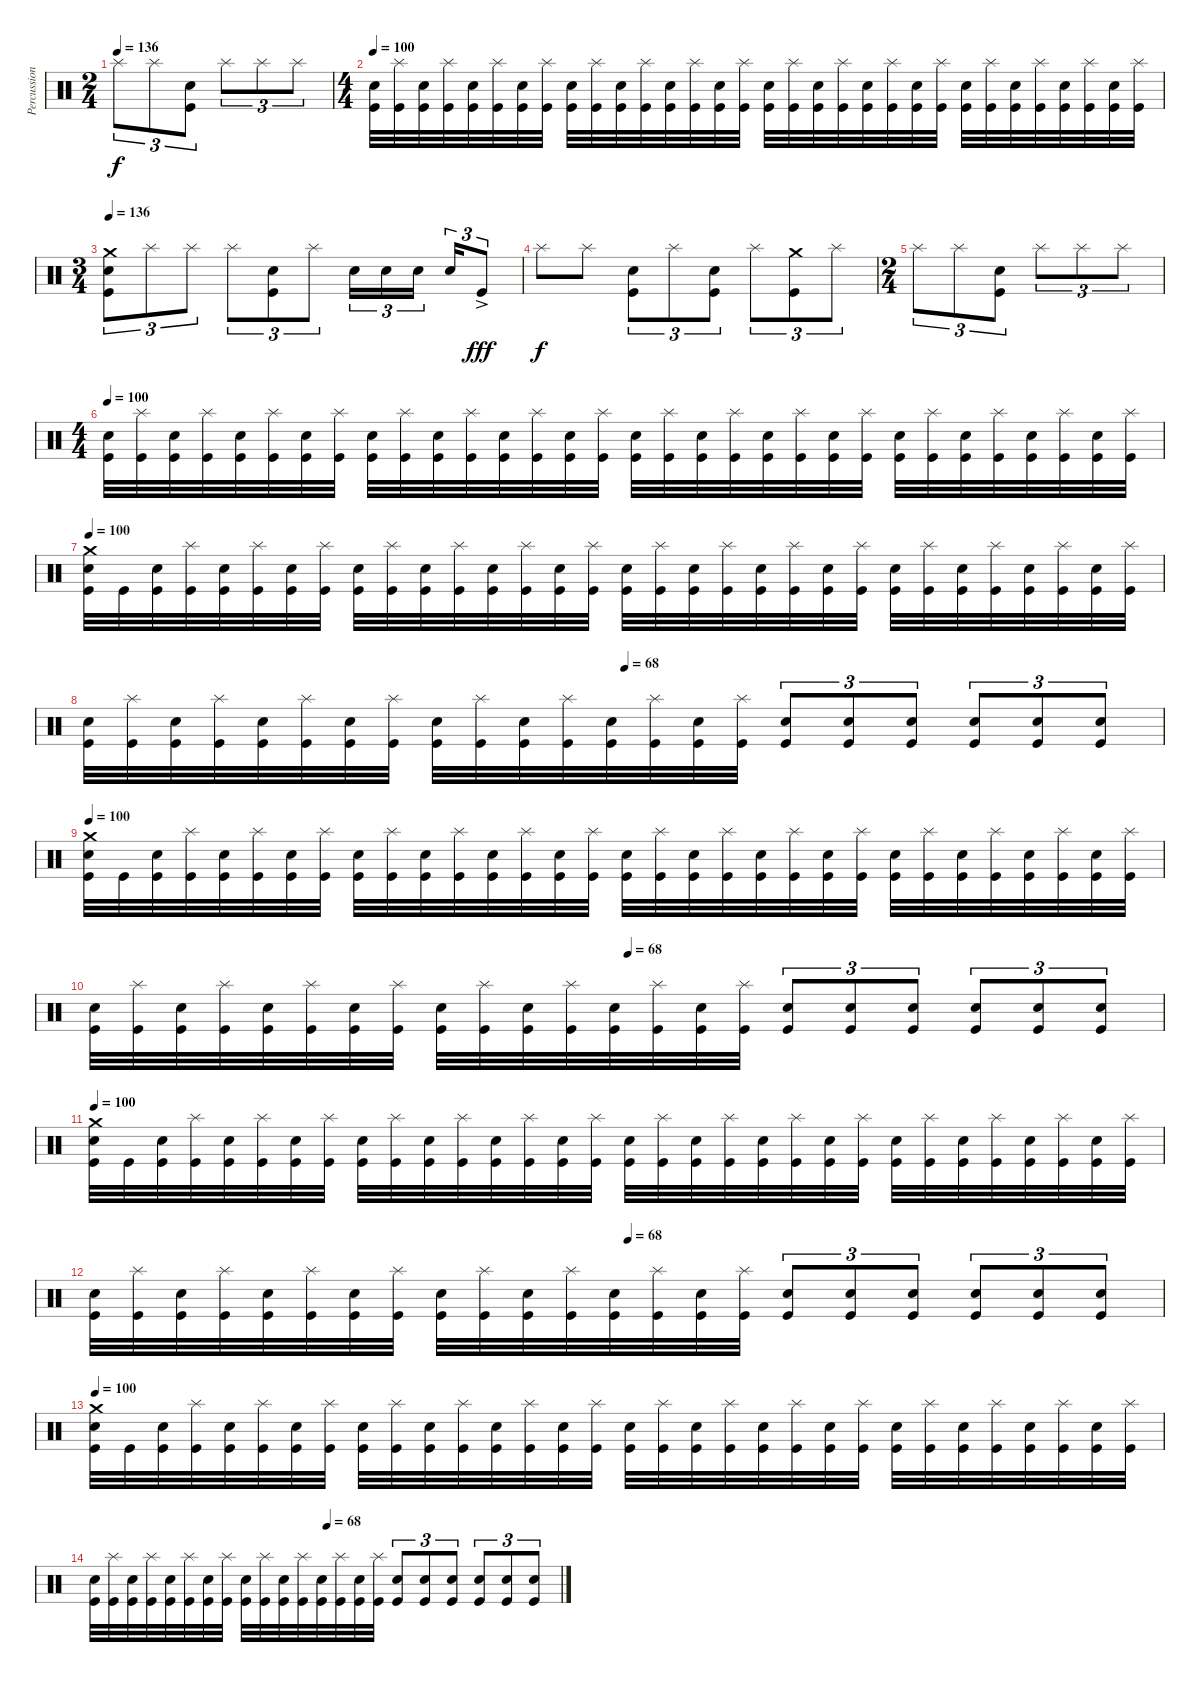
\track ("Percussion" "Percussion") {instrument percussion}
\staff {score}
\articulation defaults
\ts (2 4)
\tempo 136
\clef neutral
\ks c "Splash (hit)".8{tu (3 2) dy f} "Splash (hit)".8{tu (3 2)}
("Electric Snare (hit)" "Kick (hit)").8{tu (3 2)} "Splash (hit)".8{tu (3 2)} "Splash (hit)".8{tu (3 2)} "Splash (hit)".8{tu (3 2)} |
\ts (4 4)
\tempo 100
("Electric Snare (hit)" "Kick (hit)").32 ("Splash (hit)" "Kick (hit)").32 ("Electric Snare (hit)" "Kick (hit)").32 ("Splash (hit)" "Kick (hit)").32 ("Electric Snare (hit)" "Kick (hit)").32 ("Splash (hit)" "Kick (hit)").32 ("Electric Snare (hit)" "Kick (hit)").32 ("Splash (hit)" "Kick (hit)").32 ("Electric Snare (hit)" "Kick (hit)").32 ("Splash (hit)" "Kick (hit)").32 ("Electric Snare (hit)" "Kick (hit)").32 ("Splash (hit)" "Kick (hit)").32 ("Electric Snare (hit)" "Kick (hit)").32 ("Splash (hit)" "Kick (hit)").32 ("Electric Snare (hit)" "Kick (hit)").32 ("Splash (hit)" "Kick (hit)").32 ("Electric Snare (hit)" "Kick (hit)").32 ("Splash (hit)" "Kick (hit)").32 ("Electric Snare (hit)" "Kick (hit)").32 ("Splash (hit)" "Kick (hit)").32 ("Electric Snare (hit)" "Kick (hit)").32 ("Splash (hit)" "Kick (hit)").32 ("Electric Snare (hit)" "Kick (hit)").32 ("Splash (hit)" "Kick (hit)").32 ("Electric Snare (hit)" "Kick (hit)").32 ("Splash (hit)" "Kick (hit)").32 ("Electric Snare (hit)" "Kick (hit)").32 ("Splash (hit)" "Kick (hit)").32 ("Electric Snare (hit)" "Kick (hit)").32 ("Splash (hit)" "Kick (hit)").32 ("Electric Snare (hit)" "Kick (hit)").32 ("Splash (hit)" "Kick (hit)").32 |
\ts (3 4)
\tempo 136
("Crash medium (hit)" "Electric Snare (hit)" "Kick (hit)").8{tu (3 2)} "Splash (hit)".8{tu (3 2)} "Splash (hit)".8{tu (3 2)} "Splash (hit)".8{tu (3 2)} ("Electric Snare (hit)" "Kick (hit)").8{tu (3 2)} "Splash (hit)".8{tu (3 2)} "Electric Snare (hit)".16{tu (3 2)} "Electric Snare (hit)".16{tu (3 2)} "Electric Snare (hit)".16{tu (3 2)} "Electric Snare (hit)".16{tu (3 2)} "Kick (hit)"{ac}.8{tu (3 2) dy fff} |
"Splash (hit)".8{dy f} "Splash (hit)".8 ("Electric Snare (hit)" "Kick (hit)").8{tu (3 2)} "Splash (hit)".8{tu (3 2)} ("Electric Snare (hit)" "Kick (hit)").8{tu (3 2)} "Splash (hit)".8{tu (3 2)} ("Crash medium (hit)" "Kick (hit)").8{tu (3 2)} "Splash (hit)".8{tu (3 2)} |
\ts (2 4)
"Splash (hit)".8{tu (3 2)} "Splash (hit)".8{tu (3 2)} ("Electric Snare (hit)" "Kick (hit)").8{tu (3 2)} "Splash (hit)".8{tu (3 2)} "Splash (hit)".8{tu (3 2)} "Splash (hit)".8{tu (3 2)} |
\ts (4 4)
\tempo 100
("Electric Snare (hit)" "Kick (hit)").32 ("Splash (hit)" "Kick (hit)").32 ("Electric Snare (hit)" "Kick (hit)").32 ("Splash (hit)" "Kick (hit)").32 ("Electric Snare (hit)" "Kick (hit)").32 ("Splash (hit)" "Kick (hit)").32 ("Electric Snare (hit)" "Kick (hit)").32 ("Splash (hit)" "Kick (hit)").32 ("Electric Snare (hit)" "Kick (hit)").32 ("Splash (hit)" "Kick (hit)").32 ("Electric Snare (hit)" "Kick (hit)").32 ("Splash (hit)" "Kick (hit)").32 ("Electric Snare (hit)" "Kick (hit)").32 ("Splash (hit)" "Kick (hit)").32 ("Electric Snare (hit)" "Kick (hit)").32 ("Splash (hit)" "Kick (hit)").32 ("Electric Snare (hit)" "Kick (hit)").32 ("Splash (hit)" "Kick (hit)").32 ("Electric Snare (hit)" "Kick (hit)").32 ("Splash (hit)" "Kick (hit)").32 ("Electric Snare (hit)" "Kick (hit)").32 ("Splash (hit)" "Kick (hit)").32 ("Electric Snare (hit)" "Kick (hit)").32 ("Splash (hit)" "Kick (hit)").32 ("Electric Snare (hit)" "Kick (hit)").32 ("Splash (hit)" "Kick (hit)").32 ("Electric Snare (hit)" "Kick (hit)").32 ("Splash (hit)" "Kick (hit)").32 ("Electric Snare (hit)" "Kick (hit)").32 ("Splash (hit)" "Kick (hit)").32 ("Electric Snare (hit)" "Kick (hit)").32 ("Splash (hit)" "Kick (hit)").32 |
\tempo 100
("Crash medium (hit)" "Electric Snare (hit)" "Kick (hit)").32 "Kick (hit)".32 ("Electric Snare (hit)" "Kick (hit)").32 ("Splash (hit)" "Kick (hit)").32 ("Electric Snare (hit)" "Kick (hit)").32 ("Splash (hit)" "Kick (hit)").32 ("Electric Snare (hit)" "Kick (hit)").32 ("Splash (hit)" "Kick (hit)").32 ("Electric Snare (hit)" "Kick (hit)").32 ("Splash (hit)" "Kick (hit)").32 ("Electric Snare (hit)" "Kick (hit)").32 ("Splash (hit)" "Kick (hit)").32 ("Electric Snare (hit)" "Kick (hit)").32 ("Splash (hit)" "Kick (hit)").32 ("Electric Snare (hit)" "Kick (hit)").32 ("Splash (hit)" "Kick (hit)").32 ("Electric Snare (hit)" "Kick (hit)").32 ("Splash (hit)" "Kick (hit)").32 ("Electric Snare (hit)" "Kick (hit)").32 ("Splash (hit)" "Kick (hit)").32 ("Electric Snare (hit)" "Kick (hit)").32 ("Splash (hit)" "Kick (hit)").32 ("Electric Snare (hit)" "Kick (hit)").32 ("Splash (hit)" "Kick (hit)").32 ("Electric Snare (hit)" "Kick (hit)").32 ("Splash (hit)" "Kick (hit)").32 ("Electric Snare (hit)" "Kick (hit)").32 ("Splash (hit)" "Kick (hit)").32 ("Electric Snare (hit)" "Kick (hit)").32 ("Splash (hit)" "Kick (hit)").32 ("Electric Snare (hit)" "Kick (hit)").32 ("Splash (hit)" "Kick (hit)").32 |
\tempo (68 0.5)
("Electric Snare (hit)" "Kick (hit)").32 ("Splash (hit)" "Kick (hit)").32 ("Electric Snare (hit)" "Kick (hit)").32 ("Splash (hit)" "Kick (hit)").32 ("Electric Snare (hit)" "Kick (hit)").32 ("Splash (hit)" "Kick (hit)").32 ("Electric Snare (hit)" "Kick (hit)").32 ("Splash (hit)" "Kick (hit)").32 ("Electric Snare (hit)" "Kick (hit)").32 ("Splash (hit)" "Kick (hit)").32 ("Electric Snare (hit)" "Kick (hit)").32 ("Splash (hit)" "Kick (hit)").32 ("Electric Snare (hit)" "Kick (hit)").32 ("Splash (hit)" "Kick (hit)").32 ("Electric Snare (hit)" "Kick (hit)").32 ("Splash (hit)" "Kick (hit)").32 ("Electric Snare (hit)" "Kick (hit)").8{tu (3 2)} ("Electric Snare (hit)" "Kick (hit)").8{tu (3 2)} ("Electric Snare (hit)" "Kick (hit)").8{tu (3 2)} ("Electric Snare (hit)" "Kick (hit)").8{tu (3 2)} ("Electric Snare (hit)" "Kick (hit)").8{tu (3 2)} ("Electric Snare (hit)" "Kick (hit)").8{tu (3 2)} |
\tempo 100
("Crash medium (hit)" "Electric Snare (hit)" "Kick (hit)").32 "Kick (hit)".32 ("Electric Snare (hit)" "Kick (hit)").32 ("Splash (hit)" "Kick (hit)").32 ("Electric Snare (hit)" "Kick (hit)").32 ("Splash (hit)" "Kick (hit)").32 ("Electric Snare (hit)" "Kick (hit)").32 ("Splash (hit)" "Kick (hit)").32 ("Electric Snare (hit)" "Kick (hit)").32 ("Splash (hit)" "Kick (hit)").32 ("Electric Snare (hit)" "Kick (hit)").32 ("Splash (hit)" "Kick (hit)").32 ("Electric Snare (hit)" "Kick (hit)").32 ("Splash (hit)" "Kick (hit)").32 ("Electric Snare (hit)" "Kick (hit)").32 ("Splash (hit)" "Kick (hit)").32 ("Electric Snare (hit)" "Kick (hit)").32 ("Splash (hit)" "Kick (hit)").32 ("Electric Snare (hit)" "Kick (hit)").32 ("Splash (hit)" "Kick (hit)").32 ("Electric Snare (hit)" "Kick (hit)").32 ("Splash (hit)" "Kick (hit)").32 ("Electric Snare (hit)" "Kick (hit)").32 ("Splash (hit)" "Kick (hit)").32 ("Electric Snare (hit)" "Kick (hit)").32 ("Splash (hit)" "Kick (hit)").32 ("Electric Snare (hit)" "Kick (hit)").32 ("Splash (hit)" "Kick (hit)").32 ("Electric Snare (hit)" "Kick (hit)").32 ("Splash (hit)" "Kick (hit)").32 ("Electric Snare (hit)" "Kick (hit)").32 ("Splash (hit)" "Kick (hit)").32 |
\tempo (68 0.5)
("Electric Snare (hit)" "Kick (hit)").32 ("Splash (hit)" "Kick (hit)").32 ("Electric Snare (hit)" "Kick (hit)").32 ("Splash (hit)" "Kick (hit)").32 ("Electric Snare (hit)" "Kick (hit)").32 ("Splash (hit)" "Kick (hit)").32 ("Electric Snare (hit)" "Kick (hit)").32 ("Splash (hit)" "Kick (hit)").32 ("Electric Snare (hit)" "Kick (hit)").32 ("Splash (hit)" "Kick (hit)").32 ("Electric Snare (hit)" "Kick (hit)").32 ("Splash (hit)" "Kick (hit)").32 ("Electric Snare (hit)" "Kick (hit)").32 ("Splash (hit)" "Kick (hit)").32 ("Electric Snare (hit)" "Kick (hit)").32 ("Splash (hit)" "Kick (hit)").32 ("Electric Snare (hit)" "Kick (hit)").8{tu (3 2)} ("Electric Snare (hit)" "Kick (hit)").8{tu (3 2)} ("Electric Snare (hit)" "Kick (hit)").8{tu (3 2)} ("Electric Snare (hit)" "Kick (hit)").8{tu (3 2)} ("Electric Snare (hit)" "Kick (hit)").8{tu (3 2)} ("Electric Snare (hit)" "Kick (hit)").8{tu (3 2)} |
\tempo 100
("Crash medium (hit)" "Electric Snare (hit)" "Kick (hit)").32 "Kick (hit)".32 ("Electric Snare (hit)" "Kick (hit)").32 ("Splash (hit)" "Kick (hit)").32 ("Electric Snare (hit)" "Kick (hit)").32 ("Splash (hit)" "Kick (hit)").32 ("Electric Snare (hit)" "Kick (hit)").32 ("Splash (hit)" "Kick (hit)").32 ("Electric Snare (hit)" "Kick (hit)").32 ("Splash (hit)" "Kick (hit)").32 ("Electric Snare (hit)" "Kick (hit)").32 ("Splash (hit)" "Kick (hit)").32 ("Electric Snare (hit)" "Kick (hit)").32 ("Splash (hit)" "Kick (hit)").32 ("Electric Snare (hit)" "Kick (hit)").32 ("Splash (hit)" "Kick (hit)").32 ("Electric Snare (hit)" "Kick (hit)").32 ("Splash (hit)" "Kick (hit)").32 ("Electric Snare (hit)" "Kick (hit)").32 ("Splash (hit)" "Kick (hit)").32 ("Electric Snare (hit)" "Kick (hit)").32 ("Splash (hit)" "Kick (hit)").32 ("Electric Snare (hit)" "Kick (hit)").32 ("Splash (hit)" "Kick (hit)").32 ("Electric Snare (hit)" "Kick (hit)").32 ("Splash (hit)" "Kick (hit)").32 ("Electric Snare (hit)" "Kick (hit)").32 ("Splash (hit)" "Kick (hit)").32 ("Electric Snare (hit)" "Kick (hit)").32 ("Splash (hit)" "Kick (hit)").32 ("Electric Snare (hit)" "Kick (hit)").32 ("Splash (hit)" "Kick (hit)").32 |
\tempo (68 0.5)
("Electric Snare (hit)" "Kick (hit)").32 ("Splash (hit)" "Kick (hit)").32 ("Electric Snare (hit)" "Kick (hit)").32 ("Splash (hit)" "Kick (hit)").32 ("Electric Snare (hit)" "Kick (hit)").32 ("Splash (hit)" "Kick (hit)").32 ("Electric Snare (hit)" "Kick (hit)").32 ("Splash (hit)" "Kick (hit)").32 ("Electric Snare (hit)" "Kick (hit)").32 ("Splash (hit)" "Kick (hit)").32 ("Electric Snare (hit)" "Kick (hit)").32 ("Splash (hit)" "Kick (hit)").32 ("Electric Snare (hit)" "Kick (hit)").32 ("Splash (hit)" "Kick (hit)").32 ("Electric Snare (hit)" "Kick (hit)").32 ("Splash (hit)" "Kick (hit)").32 ("Electric Snare (hit)" "Kick (hit)").8{tu (3 2)} ("Electric Snare (hit)" "Kick (hit)").8{tu (3 2)} ("Electric Snare (hit)" "Kick (hit)").8{tu (3 2)} ("Electric Snare (hit)" "Kick (hit)").8{tu (3 2)} ("Electric Snare (hit)" "Kick (hit)").8{tu (3 2)} ("Electric Snare (hit)" "Kick (hit)").8{tu (3 2)} |
\tempo 100
("Crash medium (hit)" "Electric Snare (hit)" "Kick (hit)").32 "Kick (hit)".32 ("Electric Snare (hit)" "Kick (hit)").32 ("Splash (hit)" "Kick (hit)").32 ("Electric Snare (hit)" "Kick (hit)").32 ("Splash (hit)" "Kick (hit)").32 ("Electric Snare (hit)" "Kick (hit)").32 ("Splash (hit)" "Kick (hit)").32 ("Electric Snare (hit)" "Kick (hit)").32 ("Splash (hit)" "Kick (hit)").32 ("Electric Snare (hit)" "Kick (hit)").32 ("Splash (hit)" "Kick (hit)").32 ("Electric Snare (hit)" "Kick (hit)").32 ("Splash (hit)" "Kick (hit)").32 ("Electric Snare (hit)" "Kick (hit)").32 ("Splash (hit)" "Kick (hit)").32 ("Electric Snare (hit)" "Kick (hit)").32 ("Splash (hit)" "Kick (hit)").32 ("Electric Snare (hit)" "Kick (hit)").32 ("Splash (hit)" "Kick (hit)").32 ("Electric Snare (hit)" "Kick (hit)").32 ("Splash (hit)" "Kick (hit)").32 ("Electric Snare (hit)" "Kick (hit)").32 ("Splash (hit)" "Kick (hit)").32 ("Electric Snare (hit)" "Kick (hit)").32 ("Splash (hit)" "Kick (hit)").32 ("Electric Snare (hit)" "Kick (hit)").32 ("Splash (hit)" "Kick (hit)").32 ("Electric Snare (hit)" "Kick (hit)").32 ("Splash (hit)" "Kick (hit)").32 ("Electric Snare (hit)" "Kick (hit)").32 ("Splash (hit)" "Kick (hit)").32 |
\tempo (68 0.5)
("Electric Snare (hit)" "Kick (hit)").32 ("Splash (hit)" "Kick (hit)").32 ("Electric Snare (hit)" "Kick (hit)").32 ("Splash (hit)" "Kick (hit)").32 ("Electric Snare (hit)" "Kick (hit)").32 ("Splash (hit)" "Kick (hit)").32 ("Electric Snare (hit)" "Kick (hit)").32 ("Splash (hit)" "Kick (hit)").32 ("Electric Snare (hit)" "Kick (hit)").32 ("Splash (hit)" "Kick (hit)").32 ("Electric Snare (hit)" "Kick (hit)").32 ("Splash (hit)" "Kick (hit)").32 ("Electric Snare (hit)" "Kick (hit)").32 ("Splash (hit)" "Kick (hit)").32 ("Electric Snare (hit)" "Kick (hit)").32 ("Splash (hit)" "Kick (hit)").32 ("Electric Snare (hit)" "Kick (hit)").8{tu (3 2)} ("Electric Snare (hit)" "Kick (hit)").8{tu (3 2)} ("Electric Snare (hit)" "Kick (hit)").8{tu (3 2)} ("Electric Snare (hit)" "Kick (hit)").8{tu (3 2)} ("Electric Snare (hit)" "Kick (hit)").8{tu (3 2)} ("Electric Snare (hit)" "Kick (hit)").8{tu (3 2)}
